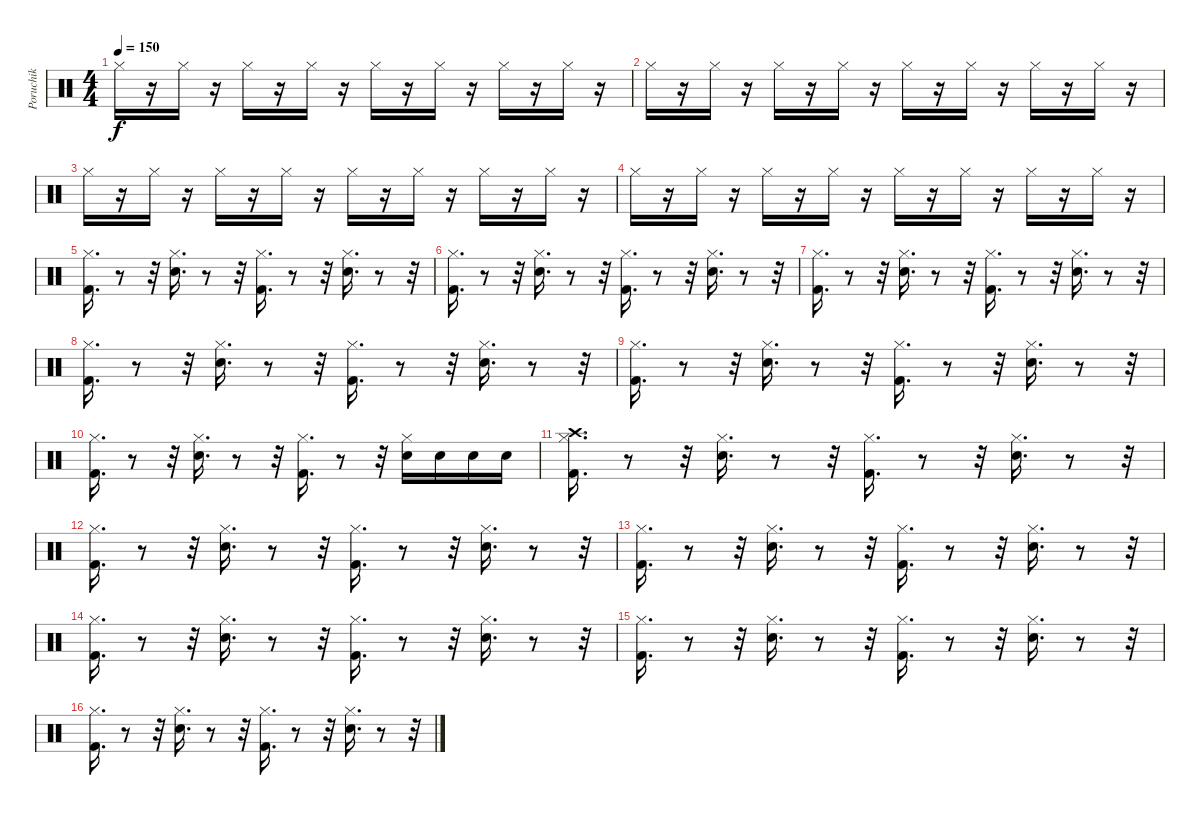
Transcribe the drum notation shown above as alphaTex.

\track ("Poruchik" "Poruchik") {instrument percussion}
\staff {score}
\articulation defaults
\ts (4 4)
\tempo 150
\clef neutral
\ks c "Hi-Hat (closed)".16{dy f}
r.16 "Hi-Hat (closed)".16 r.16 "Hi-Hat (closed)".16 r.16 "Hi-Hat (closed)".16 r.16 "Hi-Hat (closed)".16 r.16 "Hi-Hat (closed)".16 r.16 "Hi-Hat (closed)".16 r.16 "Hi-Hat (closed)".16 r.16 |
"Hi-Hat (closed)".16 r.16 "Hi-Hat (closed)".16 r.16 "Hi-Hat (closed)".16 r.16 "Hi-Hat (closed)".16 r.16 "Hi-Hat (closed)".16 r.16 "Hi-Hat (closed)".16 r.16 "Hi-Hat (closed)".16 r.16 "Hi-Hat (closed)".16 r.16 |
"Hi-Hat (closed)".16 r.16 "Hi-Hat (closed)".16 r.16 "Hi-Hat (closed)".16 r.16 "Hi-Hat (closed)".16 r.16 "Hi-Hat (closed)".16 r.16 "Hi-Hat (closed)".16 r.16 "Hi-Hat (closed)".16 r.16 "Hi-Hat (closed)".16 r.16 |
"Hi-Hat (closed)".16 r.16 "Hi-Hat (closed)".16 r.16 "Hi-Hat (closed)".16 r.16 "Hi-Hat (closed)".16 r.16 "Hi-Hat (closed)".16 r.16 "Hi-Hat (closed)".16 r.16 "Hi-Hat (closed)".16 r.16 "Hi-Hat (closed)".16 r.16 |
("Kick (hit) 2" "Hi-Hat (closed)").16{d} r.8 r.32 ("Snare (hit) 2" "Hi-Hat (closed)").16{d} r.8 r.32 ("Kick (hit) 2" "Hi-Hat (closed)").16{d} r.8 r.32 ("Snare (hit) 2" "Hi-Hat (closed)").16{d} r.8 r.32 |
("Kick (hit) 2" "Hi-Hat (closed)").16{d} r.8 r.32 ("Snare (hit) 2" "Hi-Hat (closed)").16{d} r.8 r.32 ("Kick (hit) 2" "Hi-Hat (closed)").16{d} r.8 r.32 ("Snare (hit) 2" "Hi-Hat (closed)").16{d} r.8 r.32 |
("Kick (hit) 2" "Hi-Hat (closed)").16{d} r.8 r.32 ("Snare (hit) 2" "Hi-Hat (closed)").16{d} r.8 r.32 ("Kick (hit) 2" "Hi-Hat (closed)").16{d} r.8 r.32 ("Snare (hit) 2" "Hi-Hat (closed)").16{d} r.8 r.32 |
("Kick (hit) 2" "Hi-Hat (closed)").16{d} r.8 r.32 ("Snare (hit) 2" "Hi-Hat (closed)").16{d} r.8 r.32 ("Kick (hit) 2" "Hi-Hat (closed)").16{d} r.8 r.32 ("Snare (hit) 2" "Hi-Hat (closed)").16{d} r.8 r.32 |
("Kick (hit) 2" "Hi-Hat (closed)").16{d} r.8 r.32 ("Snare (hit) 2" "Hi-Hat (closed)").16{d} r.8 r.32 ("Kick (hit) 2" "Hi-Hat (closed)").16{d} r.8 r.32 ("Snare (hit) 2" "Hi-Hat (closed)").16{d} r.8 r.32 |
("Kick (hit) 2" "Hi-Hat (closed)").16{d} r.8 r.32 ("Snare (hit) 2" "Hi-Hat (closed)").16{d} r.8 r.32 ("Kick (hit) 2" "Hi-Hat (closed)").16{d} r.8 r.32 ("Snare (hit) 2" "Hi-Hat (closed)").16 "Snare (hit) 2".16 "Snare (hit) 2".16 "Snare (hit) 2".16 |
("Crash high (hit)" "Kick (hit) 2" "Hi-Hat (closed)").16{d} r.8 r.32 ("Snare (hit) 2" "Hi-Hat (closed)").16{d} r.8 r.32 ("Kick (hit) 2" "Hi-Hat (closed)").16{d} r.8 r.32 ("Snare (hit) 2" "Hi-Hat (closed)").16{d} r.8 r.32 |
("Kick (hit) 2" "Hi-Hat (closed)").16{d} r.8 r.32 ("Snare (hit) 2" "Hi-Hat (closed)").16{d} r.8 r.32 ("Kick (hit) 2" "Hi-Hat (closed)").16{d} r.8 r.32 ("Snare (hit) 2" "Hi-Hat (closed)").16{d} r.8 r.32 |
("Kick (hit) 2" "Hi-Hat (closed)").16{d} r.8 r.32 ("Snare (hit) 2" "Hi-Hat (closed)").16{d} r.8 r.32 ("Kick (hit) 2" "Hi-Hat (closed)").16{d} r.8 r.32 ("Snare (hit) 2" "Hi-Hat (closed)").16{d} r.8 r.32 |
("Kick (hit) 2" "Hi-Hat (closed)").16{d} r.8 r.32 ("Snare (hit) 2" "Hi-Hat (closed)").16{d} r.8 r.32 ("Kick (hit) 2" "Hi-Hat (closed)").16{d} r.8 r.32 ("Snare (hit) 2" "Hi-Hat (closed)").16{d} r.8 r.32 |
("Kick (hit) 2" "Hi-Hat (closed)").16{d} r.8 r.32 ("Snare (hit) 2" "Hi-Hat (closed)").16{d} r.8 r.32 ("Kick (hit) 2" "Hi-Hat (closed)").16{d} r.8 r.32 ("Snare (hit) 2" "Hi-Hat (closed)").16{d} r.8 r.32 |
("Kick (hit) 2" "Hi-Hat (closed)").16{d} r.8 r.32 ("Snare (hit) 2" "Hi-Hat (closed)").16{d} r.8 r.32 ("Kick (hit) 2" "Hi-Hat (closed)").16{d} r.8 r.32 ("Snare (hit) 2" "Hi-Hat (closed)").16{d} r.8 r.32
